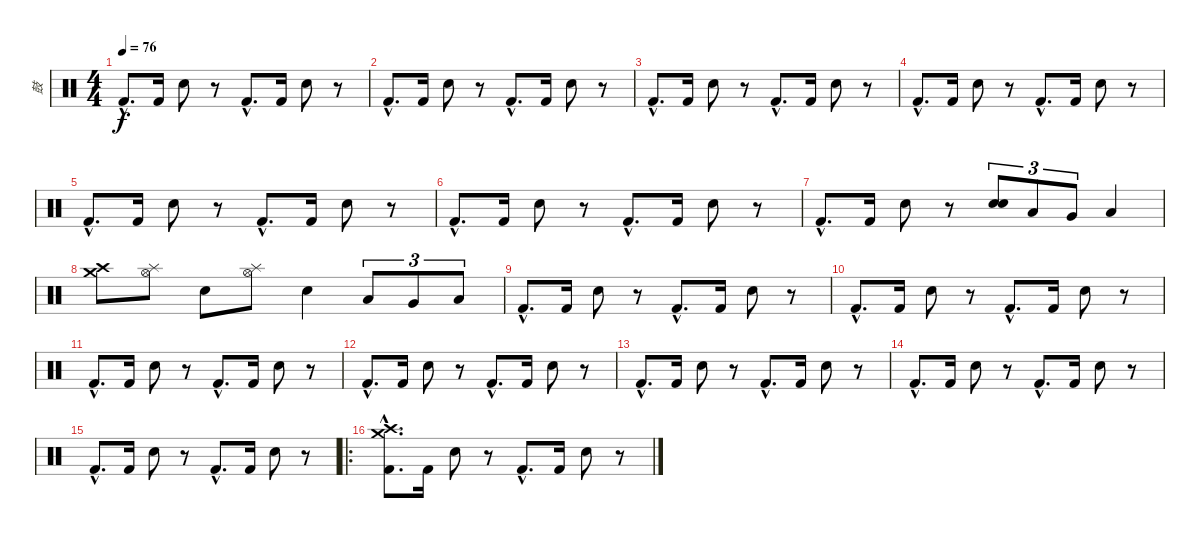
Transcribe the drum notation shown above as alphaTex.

\track ("鼓" "鼓") {instrument percussion}
\staff {score}
\articulation defaults
\ts (4 4)
\tempo 76
\clef neutral
\ks c "Kick (hit) 2"{hac}.8{d dy f} "Kick (hit) 2".16 "Electric Snare (hit)".8
r.8 "Kick (hit) 2"{hac}.8{d} "Kick (hit) 2".16 "Electric Snare (hit)".8 r.8 |
"Kick (hit) 2"{hac}.8{d} "Kick (hit) 2".16 "Electric Snare (hit)".8 r.8 "Kick (hit) 2"{hac}.8{d} "Kick (hit) 2".16 "Electric Snare (hit)".8 r.8 |
"Kick (hit) 2"{hac}.8{d} "Kick (hit) 2".16 "Electric Snare (hit)".8 r.8 "Kick (hit) 2"{hac}.8{d} "Kick (hit) 2".16 "Electric Snare (hit)".8 r.8 |
"Kick (hit) 2"{hac}.8{d} "Kick (hit) 2".16 "Electric Snare (hit)".8 r.8 "Kick (hit) 2"{hac}.8{d} "Kick (hit) 2".16 "Electric Snare (hit)".8 r.8 |
"Kick (hit) 2"{hac}.8{d} "Kick (hit) 2".16 "Electric Snare (hit)".8 r.8 "Kick (hit) 2"{hac}.8{d} "Kick (hit) 2".16 "Electric Snare (hit)".8 r.8 |
"Kick (hit) 2"{hac}.8{d} "Kick (hit) 2".16 "Electric Snare (hit)".8 r.8 "Kick (hit) 2"{hac}.8{d} "Kick (hit) 2".16 "Electric Snare (hit)".8 r.8 |
"Kick (hit) 2"{hac}.8{d} "Kick (hit) 2".16 "Electric Snare (hit)".8 r.8 ("Electric Snare (hit)" "Electric Snare (hit)").8{tu (3 2)} "Low Tom (hit)".8{tu (3 2)} "Very Low Tom (hit)".8{tu (3 2)} "Low Floor Tom (hit)".4 |
("Crash high (hit)" "Crash medium (hit)").8 ("Splash (hit)" "Hi-Hat (open)").8 "Electric Snare (hit)".8 ("Splash (hit)" "Hi-Hat (open)").8 "Electric Snare (hit)".4 "Low Tom (hit)".8{tu (3 2)} "Very Low Tom (hit)".8{tu (3 2)} "Low Floor Tom (hit)".8{tu (3 2)} |
"Kick (hit) 2"{hac}.8{d} "Kick (hit) 2".16 "Electric Snare (hit)".8 r.8 "Kick (hit) 2"{hac}.8{d} "Kick (hit) 2".16 "Electric Snare (hit)".8 r.8 |
"Kick (hit) 2"{hac}.8{d} "Kick (hit) 2".16 "Electric Snare (hit)".8 r.8 "Kick (hit) 2"{hac}.8{d} "Kick (hit) 2".16 "Electric Snare (hit)".8 r.8 |
"Kick (hit) 2"{hac}.8{d} "Kick (hit) 2".16 "Electric Snare (hit)".8 r.8 "Kick (hit) 2"{hac}.8{d} "Kick (hit) 2".16 "Electric Snare (hit)".8 r.8 |
"Kick (hit) 2"{hac}.8{d} "Kick (hit) 2".16 "Electric Snare (hit)".8 r.8 "Kick (hit) 2"{hac}.8{d} "Kick (hit) 2".16 "Electric Snare (hit)".8 r.8 |
"Kick (hit) 2"{hac}.8{d} "Kick (hit) 2".16 "Electric Snare (hit)".8 r.8 "Kick (hit) 2"{hac}.8{d} "Kick (hit) 2".16 "Electric Snare (hit)".8 r.8 |
"Kick (hit) 2"{hac}.8{d} "Kick (hit) 2".16 "Electric Snare (hit)".8 r.8 "Kick (hit) 2"{hac}.8{d} "Kick (hit) 2".16 "Electric Snare (hit)".8 r.8 |
"Kick (hit) 2"{hac}.8{d} "Kick (hit) 2".16 "Electric Snare (hit)".8 r.8 "Kick (hit) 2"{hac}.8{d} "Kick (hit) 2".16 "Electric Snare (hit)".8 r.8 |
\ro
("Crash medium (hit)"{hac} "Crash high (hit)"{hac} "Kick (hit) 2"{hac}).8{d} "Kick (hit) 2".16 "Electric Snare (hit)".8 r.8 "Kick (hit) 2"{hac}.8{d} "Kick (hit) 2".16 "Electric Snare (hit)".8 r.8
